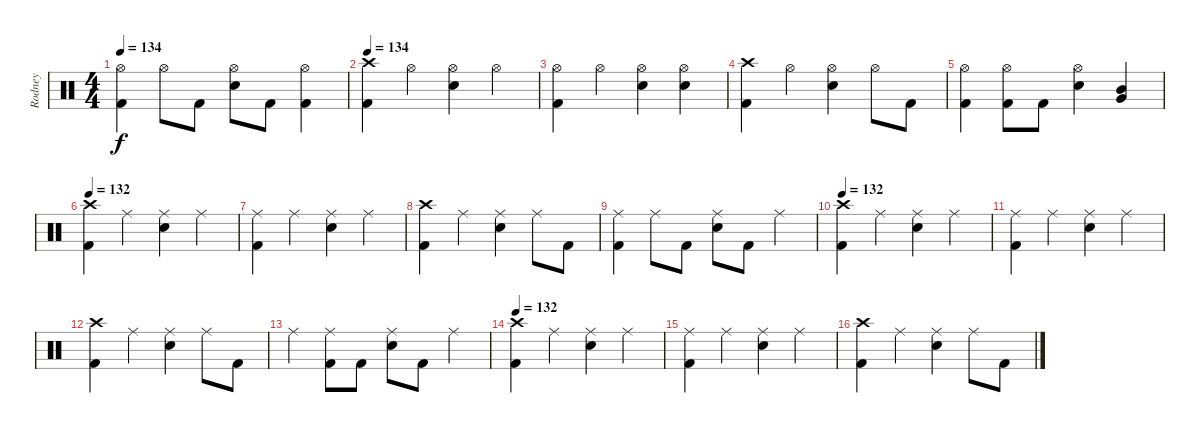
\track ("Rodney" "Rodney") {instrument percussion}
\staff {score}
\articulation defaults
\ts (4 4)
\tempo 134
\clef neutral
\ks c
("Hi-Hat (open)" "Kick (hit) 2").4{dy f} "Hi-Hat (open)".8 "Kick (hit) 2".8 ("Hi-Hat (open)" "Snare (hit) 2").8 "Kick (hit) 2".8 ("Hi-Hat (open)" "Kick (hit) 2").4 |
\tempo 134
("Crash high (hit)" "Kick (hit) 2").4 "Hi-Hat (open)".4 ("Hi-Hat (open)" "Snare (hit) 2").4 "Hi-Hat (open)".4 |
("Hi-Hat (open)" "Kick (hit) 2").4 "Hi-Hat (open)".4 ("Hi-Hat (open)" "Snare (hit) 2").4 ("Hi-Hat (open)" "Snare (hit) 2").4 |
("Crash high (hit)" "Kick (hit) 2").4 "Hi-Hat (open)".4 ("Hi-Hat (open)" "Snare (hit) 2").4 "Hi-Hat (open)".8 "Kick (hit) 2".8 |
("Hi-Hat (open)" "Kick (hit) 2").4 ("Hi-Hat (open)" "Kick (hit) 2").8 "Kick (hit) 2".8 ("Hi-Hat (open)" "Snare (hit) 2").4 ("Mid Tom (hit)" "Very Low Tom (hit)").4 |
\tempo 132
("Crash high (hit)" "Kick (hit) 2").4 "Ride (middle)".4 ("Ride (middle)" "Snare (hit) 2").4 "Ride (middle)".4 |
("Ride (middle)" "Kick (hit) 2").4 "Ride (middle)".4 ("Ride (middle)" "Snare (hit) 2").4 "Ride (middle)".4 |
("Crash high (hit)" "Kick (hit) 2").4 "Ride (middle)".4 ("Ride (middle)" "Snare (hit) 2").4 "Ride (middle)".8 "Kick (hit) 2".8 |
("Ride (middle)" "Kick (hit) 2").4 "Ride (middle)".8 "Kick (hit) 2".8 ("Ride (middle)" "Snare (hit) 2").8 "Kick (hit) 2".8 "Ride (middle)".4 |
\tempo 132
("Crash high (hit)" "Kick (hit) 2").4 "Ride (middle)".4 ("Ride (middle)" "Snare (hit) 2").4 "Ride (middle)".4 |
("Ride (middle)" "Kick (hit) 2").4 "Ride (middle)".4 ("Ride (middle)" "Snare (hit) 2").4 "Ride (middle)".4 |
("Crash high (hit)" "Kick (hit) 2").4 "Ride (middle)".4 ("Ride (middle)" "Snare (hit) 2").4 "Ride (middle)".8 "Kick (hit) 2".8 |
"Ride (middle)".4 ("Ride (middle)" "Kick (hit) 2").8 "Kick (hit) 2".8 ("Ride (middle)" "Snare (hit) 2").8 "Kick (hit) 2".8 "Ride (middle)".4 |
\tempo 132
("Crash high (hit)" "Kick (hit) 2").4 "Ride (middle)".4 ("Ride (middle)" "Snare (hit) 2").4 "Ride (middle)".4 |
("Ride (middle)" "Kick (hit) 2").4 "Ride (middle)".4 ("Ride (middle)" "Snare (hit) 2").4 "Ride (middle)".4 |
("Crash high (hit)" "Kick (hit) 2").4 "Ride (middle)".4 ("Ride (middle)" "Snare (hit) 2").4 "Ride (middle)".8 "Kick (hit) 2".8
